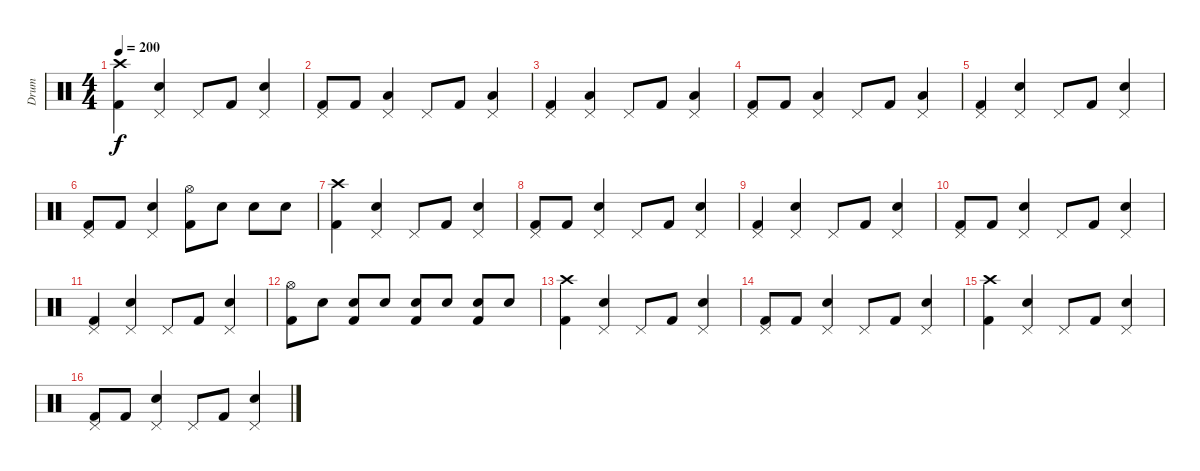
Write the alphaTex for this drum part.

\track ("Drum" "Drum") {instrument percussion}
\staff {score}
\articulation defaults
\ts (4 4)
\tempo 200
\clef neutral
\ks c
("Crash high (hit)" "Kick (hit) 2").4{dy f} ("Pedal Hi-Hat (hit)" "Electric Snare (hit)").4 "Pedal Hi-Hat (hit)".8 "Kick (hit) 2".8 ("Pedal Hi-Hat (hit)" "Electric Snare (hit)").4 |
("Pedal Hi-Hat (hit)" "Kick (hit) 2").8 "Kick (hit) 2".8 ("Pedal Hi-Hat (hit)" "Low Floor Tom (hit)").4 "Pedal Hi-Hat (hit)".8 "Kick (hit) 2".8 ("Pedal Hi-Hat (hit)" "Low Floor Tom (hit)").4 |
("Pedal Hi-Hat (hit)" "Kick (hit) 2").4 ("Pedal Hi-Hat (hit)" "Low Floor Tom (hit)").4 "Pedal Hi-Hat (hit)".8 "Kick (hit) 2".8 ("Pedal Hi-Hat (hit)" "Low Floor Tom (hit)").4 |
("Pedal Hi-Hat (hit)" "Kick (hit) 2").8 "Kick (hit) 2".8 ("Pedal Hi-Hat (hit)" "Low Floor Tom (hit)").4 "Pedal Hi-Hat (hit)".8 "Kick (hit) 2".8 ("Pedal Hi-Hat (hit)" "Low Floor Tom (hit)").4 |
("Pedal Hi-Hat (hit)" "Kick (hit) 2").4 ("Pedal Hi-Hat (hit)" "Electric Snare (hit)").4 "Pedal Hi-Hat (hit)".8 "Kick (hit) 2".8 ("Pedal Hi-Hat (hit)" "Electric Snare (hit)").4 |
("Pedal Hi-Hat (hit)" "Kick (hit) 2").8 "Kick (hit) 2".8 ("Pedal Hi-Hat (hit)" "Electric Snare (hit)").4 ("Hi-Hat (open)" "Kick (hit) 2").8 "Electric Snare (hit)".8 "Electric Snare (hit)".8 "Electric Snare (hit)".8 |
("Crash high (hit)" "Kick (hit) 2").4 ("Pedal Hi-Hat (hit)" "Electric Snare (hit)").4 "Pedal Hi-Hat (hit)".8 "Kick (hit) 2".8 ("Pedal Hi-Hat (hit)" "Electric Snare (hit)").4 |
("Pedal Hi-Hat (hit)" "Kick (hit) 2").8 "Kick (hit) 2".8 ("Pedal Hi-Hat (hit)" "Electric Snare (hit)").4 "Pedal Hi-Hat (hit)".8 "Kick (hit) 2".8 ("Pedal Hi-Hat (hit)" "Electric Snare (hit)").4 |
("Pedal Hi-Hat (hit)" "Kick (hit) 2").4 ("Pedal Hi-Hat (hit)" "Electric Snare (hit)").4 "Pedal Hi-Hat (hit)".8 "Kick (hit) 2".8 ("Pedal Hi-Hat (hit)" "Electric Snare (hit)").4 |
("Pedal Hi-Hat (hit)" "Kick (hit) 2").8 "Kick (hit) 2".8 ("Pedal Hi-Hat (hit)" "Electric Snare (hit)").4 "Pedal Hi-Hat (hit)".8 "Kick (hit) 2".8 ("Pedal Hi-Hat (hit)" "Electric Snare (hit)").4 |
("Pedal Hi-Hat (hit)" "Kick (hit) 2").4 ("Pedal Hi-Hat (hit)" "Electric Snare (hit)").4 "Pedal Hi-Hat (hit)".8 "Kick (hit) 2".8 ("Pedal Hi-Hat (hit)" "Electric Snare (hit)").4 |
("Hi-Hat (open)" "Kick (hit) 2").8 "Electric Snare (hit)".8 ("Electric Snare (hit)" "Kick (hit) 2").8 "Electric Snare (hit)".8 ("Electric Snare (hit)" "Kick (hit) 2").8 "Electric Snare (hit)".8 ("Electric Snare (hit)" "Kick (hit) 2").8 "Electric Snare (hit)".8 |
("Crash high (hit)" "Kick (hit) 2").4 ("Pedal Hi-Hat (hit)" "Electric Snare (hit)").4 "Pedal Hi-Hat (hit)".8 "Kick (hit) 2".8 ("Pedal Hi-Hat (hit)" "Electric Snare (hit)").4 |
("Pedal Hi-Hat (hit)" "Kick (hit) 2").8 "Kick (hit) 2".8 ("Pedal Hi-Hat (hit)" "Electric Snare (hit)").4 "Pedal Hi-Hat (hit)".8 "Kick (hit) 2".8 ("Pedal Hi-Hat (hit)" "Electric Snare (hit)").4 |
("Crash high (hit)" "Kick (hit) 2").4 ("Pedal Hi-Hat (hit)" "Electric Snare (hit)").4 "Pedal Hi-Hat (hit)".8 "Kick (hit) 2".8 ("Pedal Hi-Hat (hit)" "Electric Snare (hit)").4 |
("Pedal Hi-Hat (hit)" "Kick (hit) 2").8 "Kick (hit) 2".8 ("Pedal Hi-Hat (hit)" "Electric Snare (hit)").4 "Pedal Hi-Hat (hit)".8 "Kick (hit) 2".8 ("Pedal Hi-Hat (hit)" "Electric Snare (hit)").4
